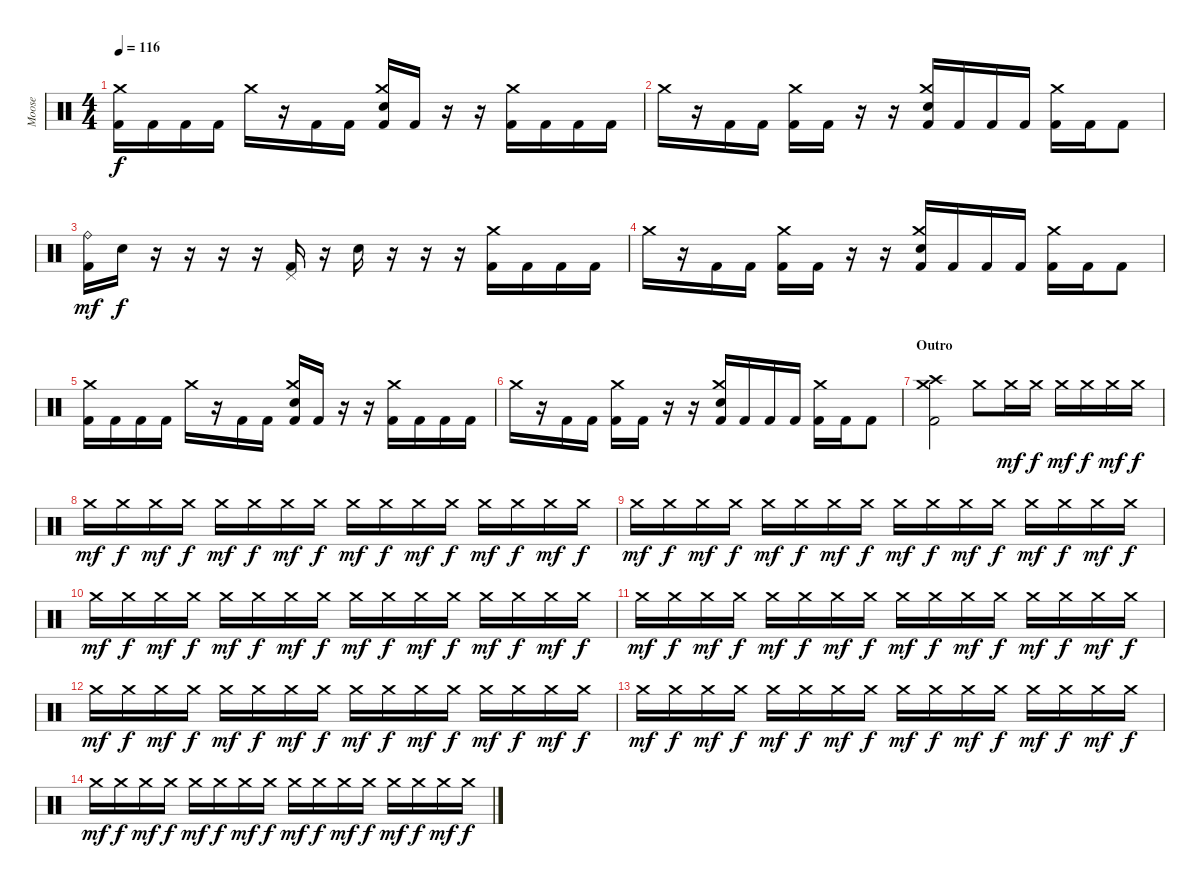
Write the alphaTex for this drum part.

\track ("Moose" "Moose") {instrument percussion}
\staff {score}
\articulation defaults
\ts (4 4)
\tempo 116
\clef neutral
\ks c
("Kick (hit) 2" "Crash medium (hit)").16{dy f} "Kick (hit) 2".16 "Kick (hit) 2".16 "Kick (hit) 2".16 "Crash medium (hit)".16 r.16 "Kick (hit) 2".16 "Kick (hit) 2".16 ("Kick (hit) 2" "Snare (hit) 2" "Crash medium (hit)").16 "Kick (hit) 2".16 r.16 r.16 ("Kick (hit) 2" "Crash medium (hit)").16 "Kick (hit) 2".16 "Kick (hit) 2".16 "Kick (hit) 2".16 |
"Crash medium (hit)".16 r.16 "Kick (hit) 2".16 "Kick (hit) 2".16 ("Kick (hit) 2" "Crash medium (hit)").16 "Kick (hit) 2".16 r.16 r.16 ("Kick (hit) 2" "Snare (hit) 2" "Crash medium (hit)").16 "Kick (hit) 2".16 "Kick (hit) 2".16 "Kick (hit) 2".16 ("Kick (hit) 2" "Crash medium (hit)").16 "Kick (hit) 2".16 "Kick (hit) 2".8 |
("Kick (hit) 2" "Ride (bell)").16{dy mf} "Snare (hit)"{x}.16{dy f} r.16 r.16 r.16 r.16 ("Kick (hit) 2" "Pedal Hi-Hat (hit)").16 r.16 "Snare (hit) 2".16 r.16 r.16 r.16 ("Kick (hit) 2" "Crash medium (hit)").16 "Kick (hit) 2".16 "Kick (hit) 2".16 "Kick (hit) 2".16 |
"Crash medium (hit)".16 r.16 "Kick (hit) 2".16 "Kick (hit) 2".16 ("Kick (hit) 2" "Crash medium (hit)").16 "Kick (hit) 2".16 r.16 r.16 ("Kick (hit) 2" "Snare (hit) 2" "Crash medium (hit)").16 "Kick (hit) 2".16 "Kick (hit) 2".16 "Kick (hit) 2".16 ("Kick (hit) 2" "Crash medium (hit)").16 "Kick (hit) 2".16 "Kick (hit) 2".8 |
("Kick (hit) 2" "Crash medium (hit)").16 "Kick (hit) 2".16 "Kick (hit) 2".16 "Kick (hit) 2".16 "Crash medium (hit)".16 r.16 "Kick (hit) 2".16 "Kick (hit) 2".16 ("Kick (hit) 2" "Snare (hit) 2" "Crash medium (hit)").16 "Kick (hit) 2".16 r.16 r.16 ("Kick (hit) 2" "Crash medium (hit)").16 "Kick (hit) 2".16 "Kick (hit) 2".16 "Kick (hit) 2".16 |
"Crash medium (hit)".16 r.16 "Kick (hit) 2".16 "Kick (hit) 2".16 ("Kick (hit) 2" "Crash medium (hit)").16 "Kick (hit) 2".16 r.16 r.16 ("Kick (hit) 2" "Snare (hit) 2" "Crash medium (hit)").16 "Kick (hit) 2".16 "Kick (hit) 2".16 "Kick (hit) 2".16 ("Kick (hit) 2" "Crash medium (hit)").16 "Kick (hit) 2".16 "Kick (hit) 2".8 |
\section ("" "Outro")
("Kick (hit) 2" "Crash high (hit)" "Crash medium (hit)").2 "Crash medium (hit)".8 "Crash medium (hit)".16{dy mf} "Crash medium (hit)".16{dy f} "Crash medium (hit)".16{dy mf} "Crash medium (hit)".16{dy f} "Crash medium (hit)".16{dy mf} "Crash medium (hit)".16{dy f} |
"Crash medium (hit)".16{dy mf} "Crash medium (hit)".16{dy f} "Crash medium (hit)".16{dy mf} "Crash medium (hit)".16{dy f} "Crash medium (hit)".16{dy mf} "Crash medium (hit)".16{dy f} "Crash medium (hit)".16{dy mf} "Crash medium (hit)".16{dy f} "Crash medium (hit)".16{dy mf} "Crash medium (hit)".16{dy f} "Crash medium (hit)".16{dy mf} "Crash medium (hit)".16{dy f} "Crash medium (hit)".16{dy mf} "Crash medium (hit)".16{dy f} "Crash medium (hit)".16{dy mf} "Crash medium (hit)".16{dy f} |
"Crash medium (hit)".16{dy mf volume 8} "Crash medium (hit)".16{dy f} "Crash medium (hit)".16{dy mf} "Crash medium (hit)".16{dy f} "Crash medium (hit)".16{dy mf} "Crash medium (hit)".16{dy f} "Crash medium (hit)".16{dy mf} "Crash medium (hit)".16{dy f} "Crash medium (hit)".16{dy mf} "Crash medium (hit)".16{dy f} "Crash medium (hit)".16{dy mf} "Crash medium (hit)".16{dy f} "Crash medium (hit)".16{dy mf} "Crash medium (hit)".16{dy f} "Crash medium (hit)".16{dy mf} "Crash medium (hit)".16{dy f} |
"Crash medium (hit)".16{dy mf} "Crash medium (hit)".16{dy f} "Crash medium (hit)".16{dy mf} "Crash medium (hit)".16{dy f} "Crash medium (hit)".16{dy mf} "Crash medium (hit)".16{dy f} "Crash medium (hit)".16{dy mf} "Crash medium (hit)".16{dy f} "Crash medium (hit)".16{dy mf} "Crash medium (hit)".16{dy f} "Crash medium (hit)".16{dy mf} "Crash medium (hit)".16{dy f} "Crash medium (hit)".16{dy mf} "Crash medium (hit)".16{dy f} "Crash medium (hit)".16{dy mf} "Crash medium (hit)".16{dy f} |
"Crash medium (hit)".16{dy mf volume 4} "Crash medium (hit)".16{dy f} "Crash medium (hit)".16{dy mf} "Crash medium (hit)".16{dy f} "Crash medium (hit)".16{dy mf} "Crash medium (hit)".16{dy f} "Crash medium (hit)".16{dy mf} "Crash medium (hit)".16{dy f} "Crash medium (hit)".16{dy mf} "Crash medium (hit)".16{dy f} "Crash medium (hit)".16{dy mf} "Crash medium (hit)".16{dy f} "Crash medium (hit)".16{dy mf} "Crash medium (hit)".16{dy f} "Crash medium (hit)".16{dy mf} "Crash medium (hit)".16{dy f} |
"Crash medium (hit)".16{dy mf} "Crash medium (hit)".16{dy f} "Crash medium (hit)".16{dy mf} "Crash medium (hit)".16{dy f} "Crash medium (hit)".16{dy mf} "Crash medium (hit)".16{dy f} "Crash medium (hit)".16{dy mf} "Crash medium (hit)".16{dy f} "Crash medium (hit)".16{dy mf} "Crash medium (hit)".16{dy f} "Crash medium (hit)".16{dy mf} "Crash medium (hit)".16{dy f} "Crash medium (hit)".16{dy mf} "Crash medium (hit)".16{dy f} "Crash medium (hit)".16{dy mf} "Crash medium (hit)".16{dy f} |
"Crash medium (hit)".16{dy mf volume 0} "Crash medium (hit)".16{dy f} "Crash medium (hit)".16{dy mf} "Crash medium (hit)".16{dy f} "Crash medium (hit)".16{dy mf} "Crash medium (hit)".16{dy f} "Crash medium (hit)".16{dy mf} "Crash medium (hit)".16{dy f} "Crash medium (hit)".16{dy mf} "Crash medium (hit)".16{dy f} "Crash medium (hit)".16{dy mf} "Crash medium (hit)".16{dy f} "Crash medium (hit)".16{dy mf} "Crash medium (hit)".16{dy f} "Crash medium (hit)".16{dy mf} "Crash medium (hit)".16{dy f} |
"Crash medium (hit)".16{dy mf} "Crash medium (hit)".16{dy f} "Crash medium (hit)".16{dy mf} "Crash medium (hit)".16{dy f} "Crash medium (hit)".16{dy mf} "Crash medium (hit)".16{dy f} "Crash medium (hit)".16{dy mf} "Crash medium (hit)".16{dy f} "Crash medium (hit)".16{dy mf} "Crash medium (hit)".16{dy f} "Crash medium (hit)".16{dy mf} "Crash medium (hit)".16{dy f} "Crash medium (hit)".16{dy mf} "Crash medium (hit)".16{dy f} "Crash medium (hit)".16{dy mf} "Crash medium (hit)".16{dy f}
